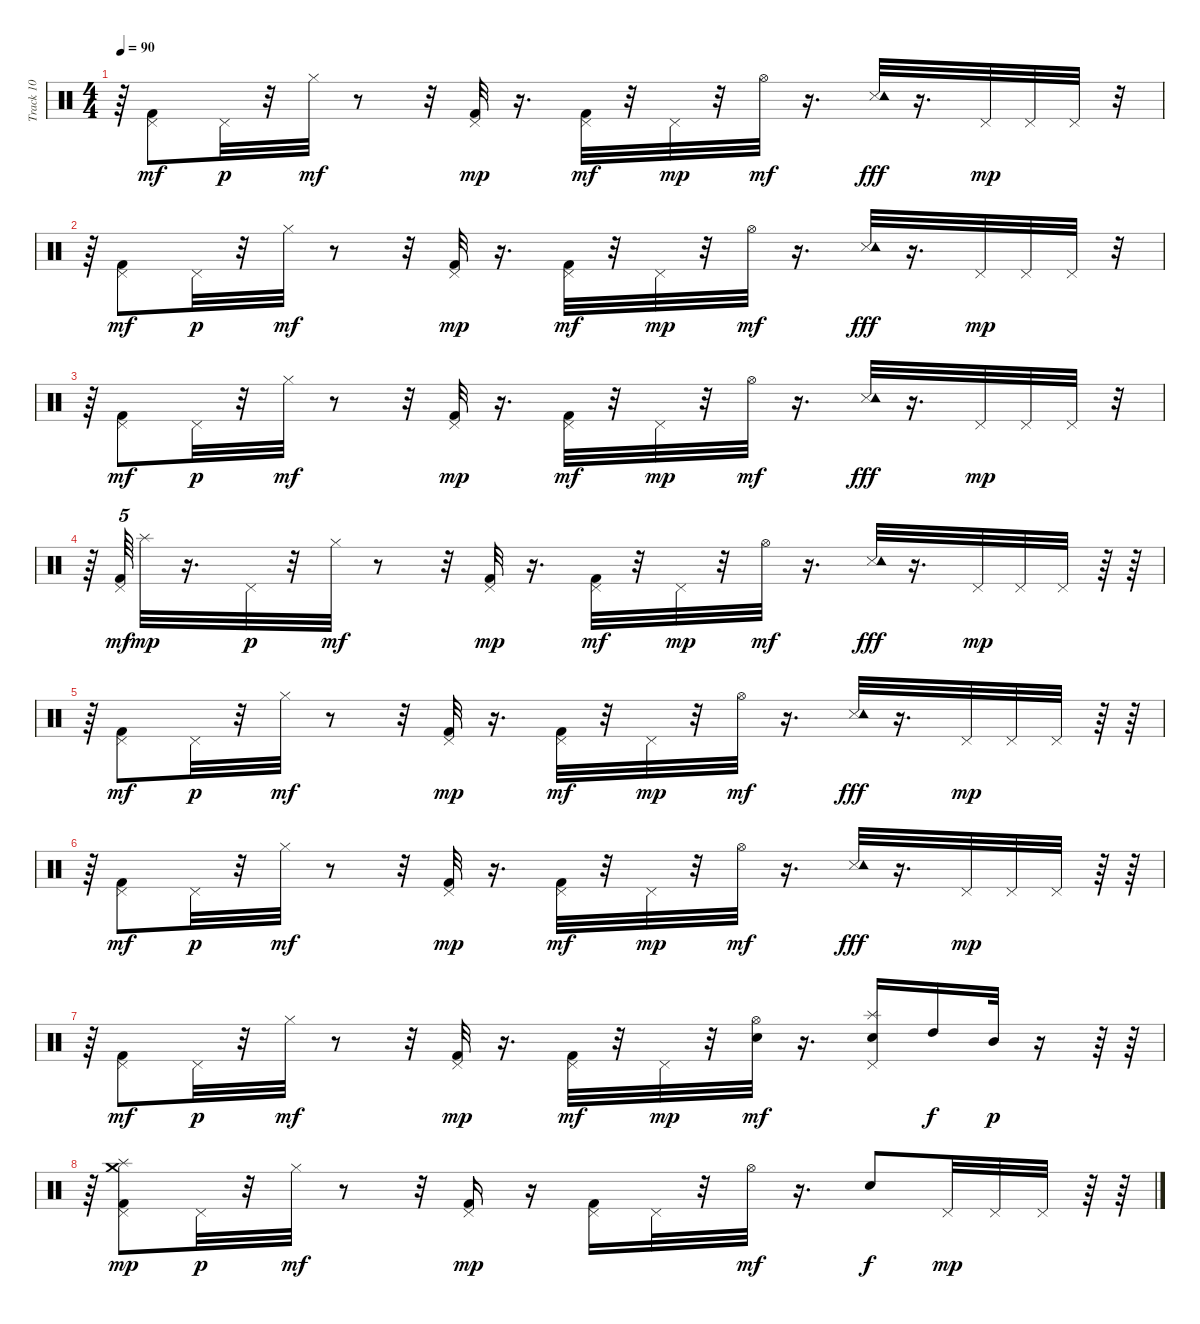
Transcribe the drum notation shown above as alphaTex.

\track ("Track 10" "Track 10") {instrument percussion}
\staff {score}
\articulation defaults
\ts (4 4)
\tempo 90
\clef neutral
\ks c
r.64{dy mp} ("Pedal Hi-Hat (hit)" "Kick (hit) 2").8{dy mf} "Pedal Hi-Hat (hit)".32{dy p} r.32 "Hi-Hat (closed)".32{dy mf} r.8 r.32 ("Pedal Hi-Hat (hit)" "Kick (hit) 2").32{dy mp} r.16{d} ("Pedal Hi-Hat (hit)" "Kick (hit) 2").32{dy mf} r.32 "Pedal Hi-Hat (hit)".32{dy mp} r.32 "Hi-Hat (open)".32{dy mf} r.16{d} ("Snare (side stick) 3" "Tambourine (hit)").32{dy fff} r.16{d} "Pedal Hi-Hat (hit)".32{dy mp} "Pedal Hi-Hat (hit)".32 "Pedal Hi-Hat (hit)".32 r.32 |
r.64 ("Pedal Hi-Hat (hit)" "Kick (hit) 2").8{dy mf} "Pedal Hi-Hat (hit)".32{dy p} r.32 "Hi-Hat (closed)".32{dy mf} r.8 r.32 ("Pedal Hi-Hat (hit)" "Kick (hit) 2").32{dy mp} r.16{d} ("Pedal Hi-Hat (hit)" "Kick (hit) 2").32{dy mf} r.32 "Pedal Hi-Hat (hit)".32{dy mp} r.32 "Hi-Hat (open)".32{dy mf} r.16{d} ("Snare (side stick) 3" "Tambourine (hit)").32{dy fff} r.16{d} "Pedal Hi-Hat (hit)".32{dy mp} "Pedal Hi-Hat (hit)".32 "Pedal Hi-Hat (hit)".32 r.32 |
r.64 ("Pedal Hi-Hat (hit)" "Kick (hit) 2").8{dy mf} "Pedal Hi-Hat (hit)".32{dy p} r.32 "Hi-Hat (closed)".32{dy mf} r.8 r.32 ("Pedal Hi-Hat (hit)" "Kick (hit) 2").32{dy mp} r.16{d} ("Pedal Hi-Hat (hit)" "Kick (hit) 2").32{dy mf} r.32 "Pedal Hi-Hat (hit)".32{dy mp} r.32 "Hi-Hat (open)".32{dy mf} r.16{d} ("Snare (side stick) 3" "Tambourine (hit)").32{dy fff} r.16{d} "Pedal Hi-Hat (hit)".32{dy mp} "Pedal Hi-Hat (hit)".32 "Pedal Hi-Hat (hit)".32 r.32 |
r.64 ("Pedal Hi-Hat (hit)" "Kick (hit) 2").64{tu (5 4) dy mf} "Splash (hit)".32{dy mp} r.16{d} "Pedal Hi-Hat (hit)".32{dy p} r.32 "Hi-Hat (closed)".32{dy mf} r.8 r.32 ("Pedal Hi-Hat (hit)" "Kick (hit) 2").32{dy mp} r.16{d} ("Pedal Hi-Hat (hit)" "Kick (hit) 2").32{dy mf} r.32 "Pedal Hi-Hat (hit)".32{dy mp} r.32 "Hi-Hat (open)".32{dy mf} r.16{d} ("Snare (side stick) 3" "Tambourine (hit)").32{dy fff} r.16{d} "Pedal Hi-Hat (hit)".32{dy mp} "Pedal Hi-Hat (hit)".32 "Pedal Hi-Hat (hit)".32 r.64 r.64 |
r.64 ("Pedal Hi-Hat (hit)" "Kick (hit) 2").8{dy mf} "Pedal Hi-Hat (hit)".32{dy p} r.32 "Hi-Hat (closed)".32{dy mf} r.8 r.32 ("Pedal Hi-Hat (hit)" "Kick (hit) 2").32{dy mp} r.16{d} ("Pedal Hi-Hat (hit)" "Kick (hit) 2").32{dy mf} r.32 "Pedal Hi-Hat (hit)".32{dy mp} r.32 "Hi-Hat (open)".32{dy mf} r.16{d} ("Snare (side stick) 3" "Tambourine (hit)").32{dy fff} r.16{d} "Pedal Hi-Hat (hit)".32{dy mp} "Pedal Hi-Hat (hit)".32 "Pedal Hi-Hat (hit)".32 r.64 r.64 |
r.64 ("Pedal Hi-Hat (hit)" "Kick (hit) 2").8{dy mf} "Pedal Hi-Hat (hit)".32{dy p} r.32 "Hi-Hat (closed)".32{dy mf} r.8 r.32 ("Pedal Hi-Hat (hit)" "Kick (hit) 2").32{dy mp} r.16{d} ("Pedal Hi-Hat (hit)" "Kick (hit) 2").32{dy mf} r.32 "Pedal Hi-Hat (hit)".32{dy mp} r.32 "Hi-Hat (open)".32{dy mf} r.16{d} ("Snare (side stick) 3" "Tambourine (hit)").32{dy fff} r.16{d} "Pedal Hi-Hat (hit)".32{dy mp} "Pedal Hi-Hat (hit)".32 "Pedal Hi-Hat (hit)".32 r.64 r.64 |
r.64 ("Pedal Hi-Hat (hit)" "Kick (hit) 2").8{dy mf} "Pedal Hi-Hat (hit)".32{dy p} r.32 "Hi-Hat (closed)".32{dy mf} r.8 r.32 ("Pedal Hi-Hat (hit)" "Kick (hit) 2").32{dy mp} r.16{d} ("Pedal Hi-Hat (hit)" "Kick (hit) 2").32{dy mf} r.32 "Pedal Hi-Hat (hit)".32{dy mp} r.32 ("Hi-Hat (open)" "Snare (hit) 2").32{dy mf} r.16{d} ("Pedal Hi-Hat (hit)" "Snare (hit) 2" "Splash (hit)").16 "High Tom (hit)".16{dy f} "Mid Tom (hit)".32{dy p} r.16 r.64 r.64 |
r.64 ("Pedal Hi-Hat (hit)" "Kick (hit) 2" "Splash (hit)" "Crash medium (hit)").8{dy mp} "Pedal Hi-Hat (hit)".32{dy p} r.32 "Hi-Hat (closed)".32{dy mf} r.8 r.32 ("Pedal Hi-Hat (hit)" "Kick (hit) 2").16{dy mp} r.16 ("Pedal Hi-Hat (hit)" "Kick (hit) 2").16 "Pedal Hi-Hat (hit)".32 r.32 "Hi-Hat (open)".32{dy mf} r.16{d} "Snare (hit) 2".8{dy f} "Pedal Hi-Hat (hit)".32{dy mp} "Pedal Hi-Hat (hit)".32 "Pedal Hi-Hat (hit)".32 r.64 r.64
